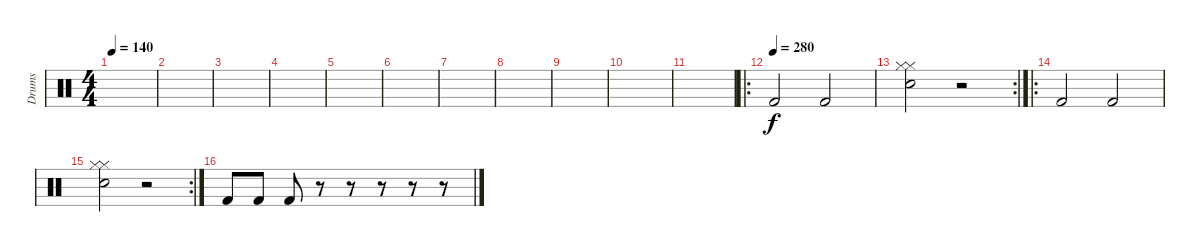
\track ("Drums" "Drums") {instrument percussion}
\staff {score}
\articulation defaults
\ts (4 4)
\tempo 140
\clef neutral
\ks c
|
|
|
|
|
|
|
|
|
|
|
\ro
\tempo (280)
"Kick (hit) 2".2 "Kick (hit) 2".2 |
\rc 2
("Hi-Hat (closed)" "Hi-Hat (closed)" "Electric Snare (hit)").2 r.2 |
\ro "Kick (hit) 2".2 "Kick (hit) 2".2
|
\rc 2
("Hi-Hat (closed)" "Hi-Hat (closed)" "Electric Snare (hit)").2 r.2 |
"Kick (hit) 2".8 "Kick (hit) 2".8 "Kick (hit) 2".8 r.8 r.8 r.8 r.8 r.8
